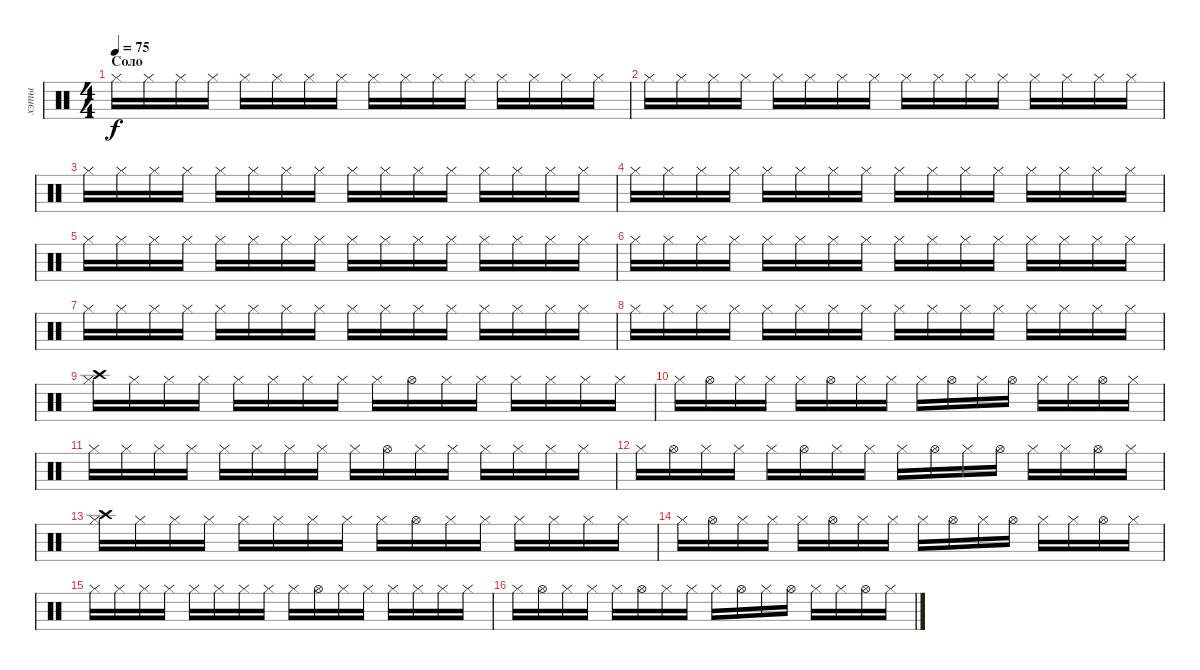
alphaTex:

\track ("хэты" "хэты") {instrument percussion}
\staff {score}
\articulation defaults
\ts (4 4)
\section ("" "Соло")
\tempo 75
\clef neutral
\ks c "Hi-Hat (closed)".16{dy f} "Hi-Hat (closed)".16 "Hi-Hat (closed)".16 "Hi-Hat (closed)".16 "Hi-Hat (closed)".16 "Hi-Hat (closed)".16 "Hi-Hat (closed)".16 "Hi-Hat (closed)".16 "Hi-Hat (closed)".16 "Hi-Hat (closed)".16 "Hi-Hat (closed)".16 "Hi-Hat (closed)".16 "Hi-Hat (closed)".16 "Hi-Hat (closed)".16 "Hi-Hat (closed)".16 "Hi-Hat (closed)".16
|
"Hi-Hat (closed)".16 "Hi-Hat (closed)".16 "Hi-Hat (closed)".16 "Hi-Hat (closed)".16 "Hi-Hat (closed)".16 "Hi-Hat (closed)".16 "Hi-Hat (closed)".16 "Hi-Hat (closed)".16 "Hi-Hat (closed)".16 "Hi-Hat (closed)".16 "Hi-Hat (closed)".16 "Hi-Hat (closed)".16 "Hi-Hat (closed)".16 "Hi-Hat (closed)".16 "Hi-Hat (closed)".16 "Hi-Hat (closed)".16 |
"Hi-Hat (closed)".16 "Hi-Hat (closed)".16 "Hi-Hat (closed)".16 "Hi-Hat (closed)".16 "Hi-Hat (closed)".16 "Hi-Hat (closed)".16 "Hi-Hat (closed)".16 "Hi-Hat (closed)".16 "Hi-Hat (closed)".16 "Hi-Hat (closed)".16 "Hi-Hat (closed)".16 "Hi-Hat (closed)".16 "Hi-Hat (closed)".16 "Hi-Hat (closed)".16 "Hi-Hat (closed)".16 "Hi-Hat (closed)".16 |
"Hi-Hat (closed)".16 "Hi-Hat (closed)".16 "Hi-Hat (closed)".16 "Hi-Hat (closed)".16 "Hi-Hat (closed)".16 "Hi-Hat (closed)".16 "Hi-Hat (closed)".16 "Hi-Hat (closed)".16 "Hi-Hat (closed)".16 "Hi-Hat (closed)".16 "Hi-Hat (closed)".16 "Hi-Hat (closed)".16 "Hi-Hat (closed)".16 "Hi-Hat (closed)".16 "Hi-Hat (closed)".16 "Hi-Hat (closed)".16 |
"Hi-Hat (closed)".16 "Hi-Hat (closed)".16 "Hi-Hat (closed)".16 "Hi-Hat (closed)".16 "Hi-Hat (closed)".16 "Hi-Hat (closed)".16 "Hi-Hat (closed)".16 "Hi-Hat (closed)".16 "Hi-Hat (closed)".16 "Hi-Hat (closed)".16 "Hi-Hat (closed)".16 "Hi-Hat (closed)".16 "Hi-Hat (closed)".16 "Hi-Hat (closed)".16 "Hi-Hat (closed)".16 "Hi-Hat (closed)".16 |
"Hi-Hat (closed)".16 "Hi-Hat (closed)".16 "Hi-Hat (closed)".16 "Hi-Hat (closed)".16 "Hi-Hat (closed)".16 "Hi-Hat (closed)".16 "Hi-Hat (closed)".16 "Hi-Hat (closed)".16 "Hi-Hat (closed)".16 "Hi-Hat (closed)".16 "Hi-Hat (closed)".16 "Hi-Hat (closed)".16 "Hi-Hat (closed)".16 "Hi-Hat (closed)".16 "Hi-Hat (closed)".16 "Hi-Hat (closed)".16 |
"Hi-Hat (closed)".16 "Hi-Hat (closed)".16 "Hi-Hat (closed)".16 "Hi-Hat (closed)".16 "Hi-Hat (closed)".16 "Hi-Hat (closed)".16 "Hi-Hat (closed)".16 "Hi-Hat (closed)".16 "Hi-Hat (closed)".16 "Hi-Hat (closed)".16 "Hi-Hat (closed)".16 "Hi-Hat (closed)".16 "Hi-Hat (closed)".16 "Hi-Hat (closed)".16 "Hi-Hat (closed)".16 "Hi-Hat (closed)".16 |
"Hi-Hat (closed)".16 "Hi-Hat (closed)".16 "Hi-Hat (closed)".16 "Hi-Hat (closed)".16 "Hi-Hat (closed)".16 "Hi-Hat (closed)".16 "Hi-Hat (closed)".16 "Hi-Hat (closed)".16 "Hi-Hat (closed)".16 "Hi-Hat (closed)".16 "Hi-Hat (closed)".16 "Hi-Hat (closed)".16 "Hi-Hat (closed)".16 "Hi-Hat (closed)".16 "Hi-Hat (closed)".16 "Hi-Hat (closed)".16 |
("Crash high (hit)" "Hi-Hat (closed)").16 "Hi-Hat (closed)".16 "Hi-Hat (closed)".16 "Hi-Hat (closed)".16 "Hi-Hat (closed)".16 "Hi-Hat (closed)".16 "Hi-Hat (closed)".16 "Hi-Hat (closed)".16 "Hi-Hat (closed)".16 "Hi-Hat (open)".16 "Hi-Hat (closed)".16 "Hi-Hat (closed)".16 "Hi-Hat (closed)".16 "Hi-Hat (closed)".16 "Hi-Hat (closed)".16 "Hi-Hat (closed)".16 |
"Hi-Hat (closed)".16 "Hi-Hat (open)".16 "Hi-Hat (closed)".16 "Hi-Hat (closed)".16 "Hi-Hat (closed)".16 "Hi-Hat (open)".16 "Hi-Hat (closed)".16 "Hi-Hat (closed)".16 "Hi-Hat (closed)".16 "Hi-Hat (open)".16 "Hi-Hat (closed)".16 "Hi-Hat (open)".16 "Hi-Hat (closed)".16 "Hi-Hat (closed)".16 "Hi-Hat (open)".16 "Hi-Hat (closed)".16 |
"Hi-Hat (closed)".16 "Hi-Hat (closed)".16 "Hi-Hat (closed)".16 "Hi-Hat (closed)".16 "Hi-Hat (closed)".16 "Hi-Hat (closed)".16 "Hi-Hat (closed)".16 "Hi-Hat (closed)".16 "Hi-Hat (closed)".16 "Hi-Hat (open)".16 "Hi-Hat (closed)".16 "Hi-Hat (closed)".16 "Hi-Hat (closed)".16 "Hi-Hat (closed)".16 "Hi-Hat (closed)".16 "Hi-Hat (closed)".16 |
"Hi-Hat (closed)".16 "Hi-Hat (open)".16 "Hi-Hat (closed)".16 "Hi-Hat (closed)".16 "Hi-Hat (closed)".16 "Hi-Hat (open)".16 "Hi-Hat (closed)".16 "Hi-Hat (closed)".16 "Hi-Hat (closed)".16 "Hi-Hat (open)".16 "Hi-Hat (closed)".16 "Hi-Hat (open)".16 "Hi-Hat (closed)".16 "Hi-Hat (closed)".16 "Hi-Hat (open)".16 "Hi-Hat (closed)".16 |
("Crash high (hit)" "Hi-Hat (closed)").16 "Hi-Hat (closed)".16 "Hi-Hat (closed)".16 "Hi-Hat (closed)".16 "Hi-Hat (closed)".16 "Hi-Hat (closed)".16 "Hi-Hat (closed)".16 "Hi-Hat (closed)".16 "Hi-Hat (closed)".16 "Hi-Hat (open)".16 "Hi-Hat (closed)".16 "Hi-Hat (closed)".16 "Hi-Hat (closed)".16 "Hi-Hat (closed)".16 "Hi-Hat (closed)".16 "Hi-Hat (closed)".16 |
"Hi-Hat (closed)".16 "Hi-Hat (open)".16 "Hi-Hat (closed)".16 "Hi-Hat (closed)".16 "Hi-Hat (closed)".16 "Hi-Hat (open)".16 "Hi-Hat (closed)".16 "Hi-Hat (closed)".16 "Hi-Hat (closed)".16 "Hi-Hat (open)".16 "Hi-Hat (closed)".16 "Hi-Hat (open)".16 "Hi-Hat (closed)".16 "Hi-Hat (closed)".16 "Hi-Hat (open)".16 "Hi-Hat (closed)".16 |
"Hi-Hat (closed)".16 "Hi-Hat (closed)".16 "Hi-Hat (closed)".16 "Hi-Hat (closed)".16 "Hi-Hat (closed)".16 "Hi-Hat (closed)".16 "Hi-Hat (closed)".16 "Hi-Hat (closed)".16 "Hi-Hat (closed)".16 "Hi-Hat (open)".16 "Hi-Hat (closed)".16 "Hi-Hat (closed)".16 "Hi-Hat (closed)".16 "Hi-Hat (closed)".16 "Hi-Hat (closed)".16 "Hi-Hat (closed)".16 |
"Hi-Hat (closed)".16 "Hi-Hat (open)".16 "Hi-Hat (closed)".16 "Hi-Hat (closed)".16 "Hi-Hat (closed)".16 "Hi-Hat (open)".16 "Hi-Hat (closed)".16 "Hi-Hat (closed)".16 "Hi-Hat (closed)".16 "Hi-Hat (open)".16 "Hi-Hat (closed)".16 "Hi-Hat (open)".16 "Hi-Hat (closed)".16 "Hi-Hat (closed)".16 "Hi-Hat (open)".16 "Hi-Hat (closed)".16
